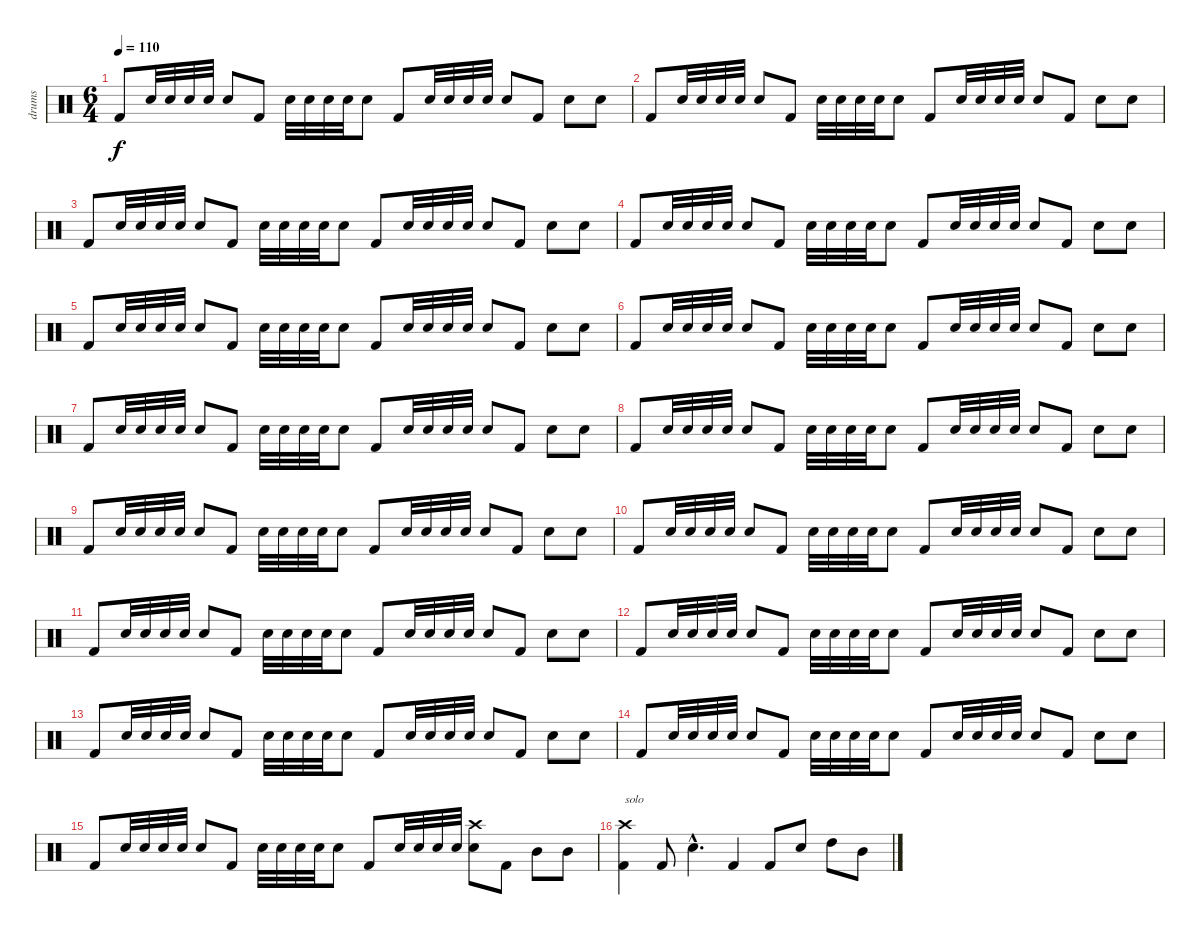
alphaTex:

\track ("drums" "drums") {instrument percussion}
\staff {score}
\articulation defaults
\ts (6 4)
\tempo 110
\clef neutral
\ks c "Kick (hit) 2".8{dy f} "Electric Snare (hit)".32 "Electric Snare (hit)".32 "Electric Snare (hit)".32 "Electric Snare (hit)".32 "Electric Snare (hit)".8 "Kick (hit) 2".8 "Electric Snare (hit)".32 "Electric Snare (hit)".32 "Electric Snare (hit)".32 "Electric Snare (hit)".32 "Electric Snare (hit)".8 "Kick (hit) 2".8 "Electric Snare (hit)".32 "Electric Snare (hit)".32 "Electric Snare (hit)".32 "Electric Snare (hit)".32 "Electric Snare (hit)".8 "Kick (hit) 2".8 "Electric Snare (hit)".8 "Electric Snare (hit)".8
|
"Kick (hit) 2".8 "Electric Snare (hit)".32 "Electric Snare (hit)".32 "Electric Snare (hit)".32 "Electric Snare (hit)".32 "Electric Snare (hit)".8 "Kick (hit) 2".8 "Electric Snare (hit)".32 "Electric Snare (hit)".32 "Electric Snare (hit)".32 "Electric Snare (hit)".32 "Electric Snare (hit)".8 "Kick (hit) 2".8 "Electric Snare (hit)".32 "Electric Snare (hit)".32 "Electric Snare (hit)".32 "Electric Snare (hit)".32 "Electric Snare (hit)".8 "Kick (hit) 2".8 "Electric Snare (hit)".8 "Electric Snare (hit)".8 |
"Kick (hit) 2".8 "Electric Snare (hit)".32 "Electric Snare (hit)".32 "Electric Snare (hit)".32 "Electric Snare (hit)".32 "Electric Snare (hit)".8 "Kick (hit) 2".8 "Electric Snare (hit)".32 "Electric Snare (hit)".32 "Electric Snare (hit)".32 "Electric Snare (hit)".32 "Electric Snare (hit)".8 "Kick (hit) 2".8 "Electric Snare (hit)".32 "Electric Snare (hit)".32 "Electric Snare (hit)".32 "Electric Snare (hit)".32 "Electric Snare (hit)".8 "Kick (hit) 2".8 "Electric Snare (hit)".8 "Electric Snare (hit)".8 |
"Kick (hit) 2".8 "Electric Snare (hit)".32 "Electric Snare (hit)".32 "Electric Snare (hit)".32 "Electric Snare (hit)".32 "Electric Snare (hit)".8 "Kick (hit) 2".8 "Electric Snare (hit)".32 "Electric Snare (hit)".32 "Electric Snare (hit)".32 "Electric Snare (hit)".32 "Electric Snare (hit)".8 "Kick (hit) 2".8 "Electric Snare (hit)".32 "Electric Snare (hit)".32 "Electric Snare (hit)".32 "Electric Snare (hit)".32 "Electric Snare (hit)".8 "Kick (hit) 2".8 "Electric Snare (hit)".8 "Electric Snare (hit)".8 |
"Kick (hit) 2".8 "Electric Snare (hit)".32 "Electric Snare (hit)".32 "Electric Snare (hit)".32 "Electric Snare (hit)".32 "Electric Snare (hit)".8 "Kick (hit) 2".8 "Electric Snare (hit)".32 "Electric Snare (hit)".32 "Electric Snare (hit)".32 "Electric Snare (hit)".32 "Electric Snare (hit)".8 "Kick (hit) 2".8 "Electric Snare (hit)".32 "Electric Snare (hit)".32 "Electric Snare (hit)".32 "Electric Snare (hit)".32 "Electric Snare (hit)".8 "Kick (hit) 2".8 "Electric Snare (hit)".8 "Electric Snare (hit)".8 |
"Kick (hit) 2".8 "Electric Snare (hit)".32 "Electric Snare (hit)".32 "Electric Snare (hit)".32 "Electric Snare (hit)".32 "Electric Snare (hit)".8 "Kick (hit) 2".8 "Electric Snare (hit)".32 "Electric Snare (hit)".32 "Electric Snare (hit)".32 "Electric Snare (hit)".32 "Electric Snare (hit)".8 "Kick (hit) 2".8 "Electric Snare (hit)".32 "Electric Snare (hit)".32 "Electric Snare (hit)".32 "Electric Snare (hit)".32 "Electric Snare (hit)".8 "Kick (hit) 2".8 "Electric Snare (hit)".8 "Electric Snare (hit)".8 |
"Kick (hit) 2".8 "Electric Snare (hit)".32 "Electric Snare (hit)".32 "Electric Snare (hit)".32 "Electric Snare (hit)".32 "Electric Snare (hit)".8 "Kick (hit) 2".8 "Electric Snare (hit)".32 "Electric Snare (hit)".32 "Electric Snare (hit)".32 "Electric Snare (hit)".32 "Electric Snare (hit)".8 "Kick (hit) 2".8 "Electric Snare (hit)".32 "Electric Snare (hit)".32 "Electric Snare (hit)".32 "Electric Snare (hit)".32 "Electric Snare (hit)".8 "Kick (hit) 2".8 "Electric Snare (hit)".8 "Electric Snare (hit)".8 |
"Kick (hit) 2".8 "Electric Snare (hit)".32 "Electric Snare (hit)".32 "Electric Snare (hit)".32 "Electric Snare (hit)".32 "Electric Snare (hit)".8 "Kick (hit) 2".8 "Electric Snare (hit)".32 "Electric Snare (hit)".32 "Electric Snare (hit)".32 "Electric Snare (hit)".32 "Electric Snare (hit)".8 "Kick (hit) 2".8 "Electric Snare (hit)".32 "Electric Snare (hit)".32 "Electric Snare (hit)".32 "Electric Snare (hit)".32 "Electric Snare (hit)".8 "Kick (hit) 2".8 "Electric Snare (hit)".8 "Electric Snare (hit)".8 |
"Kick (hit) 2".8 "Electric Snare (hit)".32 "Electric Snare (hit)".32 "Electric Snare (hit)".32 "Electric Snare (hit)".32 "Electric Snare (hit)".8 "Kick (hit) 2".8 "Electric Snare (hit)".32 "Electric Snare (hit)".32 "Electric Snare (hit)".32 "Electric Snare (hit)".32 "Electric Snare (hit)".8 "Kick (hit) 2".8 "Electric Snare (hit)".32 "Electric Snare (hit)".32 "Electric Snare (hit)".32 "Electric Snare (hit)".32 "Electric Snare (hit)".8 "Kick (hit) 2".8 "Electric Snare (hit)".8 "Electric Snare (hit)".8 |
"Kick (hit) 2".8 "Electric Snare (hit)".32 "Electric Snare (hit)".32 "Electric Snare (hit)".32 "Electric Snare (hit)".32 "Electric Snare (hit)".8 "Kick (hit) 2".8 "Electric Snare (hit)".32 "Electric Snare (hit)".32 "Electric Snare (hit)".32 "Electric Snare (hit)".32 "Electric Snare (hit)".8 "Kick (hit) 2".8 "Electric Snare (hit)".32 "Electric Snare (hit)".32 "Electric Snare (hit)".32 "Electric Snare (hit)".32 "Electric Snare (hit)".8 "Kick (hit) 2".8 "Electric Snare (hit)".8 "Electric Snare (hit)".8 |
"Kick (hit) 2".8 "Electric Snare (hit)".32 "Electric Snare (hit)".32 "Electric Snare (hit)".32 "Electric Snare (hit)".32 "Electric Snare (hit)".8 "Kick (hit) 2".8 "Electric Snare (hit)".32 "Electric Snare (hit)".32 "Electric Snare (hit)".32 "Electric Snare (hit)".32 "Electric Snare (hit)".8 "Kick (hit) 2".8 "Electric Snare (hit)".32 "Electric Snare (hit)".32 "Electric Snare (hit)".32 "Electric Snare (hit)".32 "Electric Snare (hit)".8 "Kick (hit) 2".8 "Electric Snare (hit)".8 "Electric Snare (hit)".8 |
"Kick (hit) 2".8 "Electric Snare (hit)".32 "Electric Snare (hit)".32 "Electric Snare (hit)".32 "Electric Snare (hit)".32 "Electric Snare (hit)".8 "Kick (hit) 2".8 "Electric Snare (hit)".32 "Electric Snare (hit)".32 "Electric Snare (hit)".32 "Electric Snare (hit)".32 "Electric Snare (hit)".8 "Kick (hit) 2".8 "Electric Snare (hit)".32 "Electric Snare (hit)".32 "Electric Snare (hit)".32 "Electric Snare (hit)".32 "Electric Snare (hit)".8 "Kick (hit) 2".8 "Electric Snare (hit)".8 "Electric Snare (hit)".8 |
"Kick (hit) 2".8 "Electric Snare (hit)".32 "Electric Snare (hit)".32 "Electric Snare (hit)".32 "Electric Snare (hit)".32 "Electric Snare (hit)".8 "Kick (hit) 2".8 "Electric Snare (hit)".32 "Electric Snare (hit)".32 "Electric Snare (hit)".32 "Electric Snare (hit)".32 "Electric Snare (hit)".8 "Kick (hit) 2".8 "Electric Snare (hit)".32 "Electric Snare (hit)".32 "Electric Snare (hit)".32 "Electric Snare (hit)".32 "Electric Snare (hit)".8 "Kick (hit) 2".8 "Electric Snare (hit)".8 "Electric Snare (hit)".8 |
"Kick (hit) 2".8 "Electric Snare (hit)".32 "Electric Snare (hit)".32 "Electric Snare (hit)".32 "Electric Snare (hit)".32 "Electric Snare (hit)".8 "Kick (hit) 2".8 "Electric Snare (hit)".32 "Electric Snare (hit)".32 "Electric Snare (hit)".32 "Electric Snare (hit)".32 "Electric Snare (hit)".8 "Kick (hit) 2".8 "Electric Snare (hit)".32 "Electric Snare (hit)".32 "Electric Snare (hit)".32 "Electric Snare (hit)".32 "Electric Snare (hit)".8 "Kick (hit) 2".8 "Electric Snare (hit)".8 "Electric Snare (hit)".8 |
"Kick (hit) 2".8 "Electric Snare (hit)".32 "Electric Snare (hit)".32 "Electric Snare (hit)".32 "Electric Snare (hit)".32 "Electric Snare (hit)".8 "Kick (hit) 2".8 "Electric Snare (hit)".32 "Electric Snare (hit)".32 "Electric Snare (hit)".32 "Electric Snare (hit)".32 "Electric Snare (hit)".8 "Kick (hit) 2".8 "Electric Snare (hit)".32 "Electric Snare (hit)".32 "Electric Snare (hit)".32 "Electric Snare (hit)".32 ("Crash high (hit)" "Electric Snare (hit)").8 "Kick (hit) 2".8 "Mid Tom (hit)".8 "Mid Tom (hit)".8 |
("Crash high (hit)" "Kick (hit) 2").4{txt "solo "} "Kick (hit) 2".8 "Electric Snare (hit)"{hac}.4{d} "Kick (hit) 2".4 "Kick (hit) 2".8 "Electric Snare (hit)".8 "High Tom (hit)".8 "Mid Tom (hit)".8
